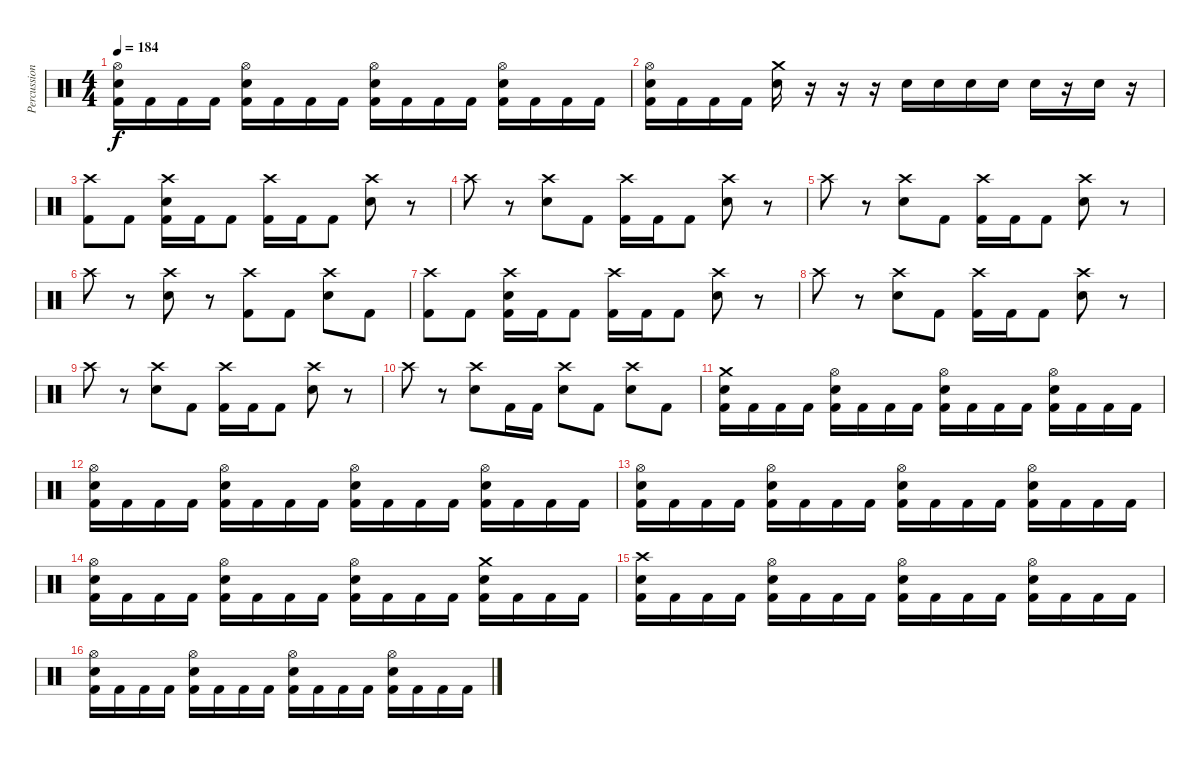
\track ("Percussion" "Percussion") {instrument percussion}
\staff {score}
\articulation defaults
\ts (4 4)
\tempo 184
\clef neutral
\ks c
("Hi-Hat (open)" "Snare (hit) 2" "Kick (hit) 2").16{dy f} "Kick (hit) 2".16 "Kick (hit) 2".16 "Kick (hit) 2".16 ("Hi-Hat (open)" "Snare (hit) 2" "Kick (hit) 2").16 "Kick (hit) 2".16 "Kick (hit) 2".16 "Kick (hit) 2".16 ("Hi-Hat (open)" "Snare (hit) 2" "Kick (hit) 2").16 "Kick (hit) 2".16 "Kick (hit) 2".16 "Kick (hit) 2".16 ("Hi-Hat (open)" "Snare (hit) 2" "Kick (hit) 2").16 "Kick (hit) 2".16 "Kick (hit) 2".16 "Kick (hit) 2".16 |
("Hi-Hat (open)" "Snare (hit) 2" "Kick (hit) 2").16 "Kick (hit) 2".16 "Kick (hit) 2".16 "Kick (hit) 2".16 ("Crash medium (hit)" "Snare (hit) 2").16 r.16 r.16 r.16 "Snare (hit) 2".16 "Snare (hit) 2".16 "Snare (hit) 2".16 "Snare (hit) 2".16 "Snare (hit) 2".16 r.16 "Snare (hit) 2".16 r.16 |
("Crash high (hit)" "Kick (hit) 2").8 "Kick (hit) 2".8 ("Crash high (hit)" "Snare (hit) 2" "Kick (hit) 2").16 "Kick (hit) 2".16 "Kick (hit) 2".8 ("Crash high (hit)" "Kick (hit) 2").16 "Kick (hit) 2".16 "Kick (hit) 2".8 ("Crash high (hit)" "Snare (hit) 2").8 r.8 |
"Crash high (hit)".8 r.8 ("Crash high (hit)" "Snare (hit) 2").8 "Kick (hit) 2".8 ("Crash high (hit)" "Kick (hit) 2").16 "Kick (hit) 2".16 "Kick (hit) 2".8 ("Crash high (hit)" "Snare (hit) 2").8 r.8 |
"Crash high (hit)".8 r.8 ("Crash high (hit)" "Snare (hit) 2").8 "Kick (hit) 2".8 ("Crash high (hit)" "Kick (hit) 2").16 "Kick (hit) 2".16 "Kick (hit) 2".8 ("Crash high (hit)" "Snare (hit) 2").8 r.8 |
"Crash high (hit)".8 r.8 ("Crash high (hit)" "Snare (hit) 2").8 r.8 ("Crash high (hit)" "Kick (hit) 2").8 "Kick (hit) 2".8 ("Crash high (hit)" "Snare (hit) 2").8 "Kick (hit) 2".8 |
("Crash high (hit)" "Kick (hit) 2").8 "Kick (hit) 2".8 ("Crash high (hit)" "Snare (hit) 2" "Kick (hit) 2").16 "Kick (hit) 2".16 "Kick (hit) 2".8 ("Crash high (hit)" "Kick (hit) 2").16 "Kick (hit) 2".16 "Kick (hit) 2".8 ("Crash high (hit)" "Snare (hit) 2").8 r.8 |
"Crash high (hit)".8 r.8 ("Crash high (hit)" "Snare (hit) 2").8 "Kick (hit) 2".8 ("Crash high (hit)" "Kick (hit) 2").16 "Kick (hit) 2".16 "Kick (hit) 2".8 ("Crash high (hit)" "Snare (hit) 2").8 r.8 |
"Crash high (hit)".8 r.8 ("Crash high (hit)" "Snare (hit) 2").8 "Kick (hit) 2".8 ("Crash high (hit)" "Kick (hit) 2").16 "Kick (hit) 2".16 "Kick (hit) 2".8 ("Crash high (hit)" "Snare (hit) 2").8 r.8 |
"Crash high (hit)".8 r.8 ("Crash high (hit)" "Snare (hit) 2").8 "Kick (hit) 2".16 "Kick (hit) 2".16 ("Crash high (hit)" "Snare (hit) 2").8 "Kick (hit) 2".8 ("Crash high (hit)" "Snare (hit) 2").8 "Kick (hit) 2".8 |
("Crash medium (hit)" "Snare (hit) 2" "Kick (hit) 2").16 "Kick (hit) 2".16 "Kick (hit) 2".16 "Kick (hit) 2".16 ("Hi-Hat (open)" "Snare (hit) 2" "Kick (hit) 2").16 "Kick (hit) 2".16 "Kick (hit) 2".16 "Kick (hit) 2".16 ("Hi-Hat (open)" "Snare (hit) 2" "Kick (hit) 2").16 "Kick (hit) 2".16 "Kick (hit) 2".16 "Kick (hit) 2".16 ("Hi-Hat (open)" "Snare (hit) 2" "Kick (hit) 2").16 "Kick (hit) 2".16 "Kick (hit) 2".16 "Kick (hit) 2".16 |
("Hi-Hat (open)" "Snare (hit) 2" "Kick (hit) 2").16 "Kick (hit) 2".16 "Kick (hit) 2".16 "Kick (hit) 2".16 ("Hi-Hat (open)" "Snare (hit) 2" "Kick (hit) 2").16 "Kick (hit) 2".16 "Kick (hit) 2".16 "Kick (hit) 2".16 ("Hi-Hat (open)" "Snare (hit) 2" "Kick (hit) 2").16 "Kick (hit) 2".16 "Kick (hit) 2".16 "Kick (hit) 2".16 ("Hi-Hat (open)" "Snare (hit) 2" "Kick (hit) 2").16 "Kick (hit) 2".16 "Kick (hit) 2".16 "Kick (hit) 2".16 |
("Hi-Hat (open)" "Snare (hit) 2" "Kick (hit) 2").16 "Kick (hit) 2".16 "Kick (hit) 2".16 "Kick (hit) 2".16 ("Hi-Hat (open)" "Snare (hit) 2" "Kick (hit) 2").16 "Kick (hit) 2".16 "Kick (hit) 2".16 "Kick (hit) 2".16 ("Hi-Hat (open)" "Snare (hit) 2" "Kick (hit) 2").16 "Kick (hit) 2".16 "Kick (hit) 2".16 "Kick (hit) 2".16 ("Hi-Hat (open)" "Snare (hit) 2" "Kick (hit) 2").16 "Kick (hit) 2".16 "Kick (hit) 2".16 "Kick (hit) 2".16 |
("Hi-Hat (open)" "Snare (hit) 2" "Kick (hit) 2").16 "Kick (hit) 2".16 "Kick (hit) 2".16 "Kick (hit) 2".16 ("Hi-Hat (open)" "Snare (hit) 2" "Kick (hit) 2").16 "Kick (hit) 2".16 "Kick (hit) 2".16 "Kick (hit) 2".16 ("Hi-Hat (open)" "Snare (hit) 2" "Kick (hit) 2").16 "Kick (hit) 2".16 "Kick (hit) 2".16 "Kick (hit) 2".16 ("Crash medium (hit)" "Snare (hit) 2" "Kick (hit) 2").16 "Kick (hit) 2".16 "Kick (hit) 2".16 "Kick (hit) 2".16 |
("Crash high (hit)" "Snare (hit) 2" "Kick (hit) 2").16 "Kick (hit) 2".16 "Kick (hit) 2".16 "Kick (hit) 2".16 ("Hi-Hat (open)" "Snare (hit) 2" "Kick (hit) 2").16 "Kick (hit) 2".16 "Kick (hit) 2".16 "Kick (hit) 2".16 ("Hi-Hat (open)" "Snare (hit) 2" "Kick (hit) 2").16 "Kick (hit) 2".16 "Kick (hit) 2".16 "Kick (hit) 2".16 ("Hi-Hat (open)" "Snare (hit) 2" "Kick (hit) 2").16 "Kick (hit) 2".16 "Kick (hit) 2".16 "Kick (hit) 2".16 |
("Hi-Hat (open)" "Snare (hit) 2" "Kick (hit) 2").16 "Kick (hit) 2".16 "Kick (hit) 2".16 "Kick (hit) 2".16 ("Hi-Hat (open)" "Snare (hit) 2" "Kick (hit) 2").16 "Kick (hit) 2".16 "Kick (hit) 2".16 "Kick (hit) 2".16 ("Hi-Hat (open)" "Snare (hit) 2" "Kick (hit) 2").16 "Kick (hit) 2".16 "Kick (hit) 2".16 "Kick (hit) 2".16 ("Hi-Hat (open)" "Snare (hit) 2" "Kick (hit) 2").16 "Kick (hit) 2".16 "Kick (hit) 2".16 "Kick (hit) 2".16
